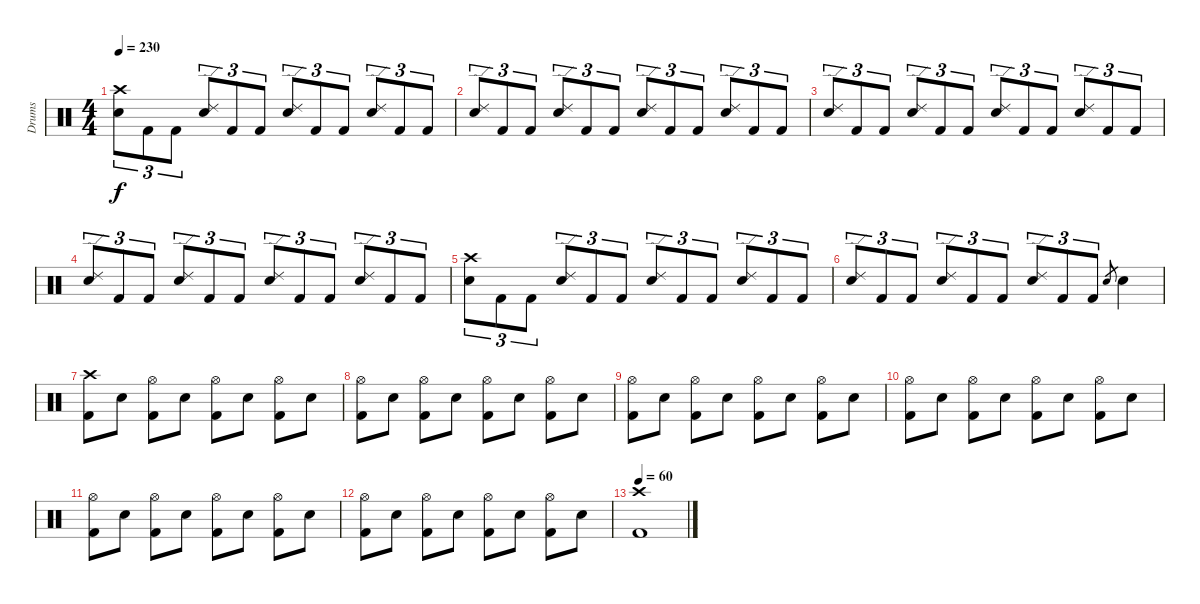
\track ("Drums" "Drums") {instrument percussion}
\staff {score}
\articulation defaults
\ts (4 4)
\tempo 230
\clef neutral
\ks c
("Crash high (hit)" "Electric Snare (hit)").8{tu (3 2) dy f} "Kick (hit) 2".8{tu (3 2)} "Kick (hit) 2".8{tu (3 2)} ("Ride (edge) 2" "Electric Snare (hit)").8{tu (3 2)} "Kick (hit) 2".8{tu (3 2)} "Kick (hit) 2".8{tu (3 2)} ("Ride (edge) 2" "Electric Snare (hit)").8{tu (3 2)} "Kick (hit) 2".8{tu (3 2)} "Kick (hit) 2".8{tu (3 2)} ("Ride (edge) 2" "Electric Snare (hit)").8{tu (3 2)} "Kick (hit) 2".8{tu (3 2)} "Kick (hit) 2".8{tu (3 2)} |
("Ride (edge) 2" "Electric Snare (hit)").8{tu (3 2)} "Kick (hit) 2".8{tu (3 2)} "Kick (hit) 2".8{tu (3 2)} ("Ride (edge) 2" "Electric Snare (hit)").8{tu (3 2)} "Kick (hit) 2".8{tu (3 2)} "Kick (hit) 2".8{tu (3 2)} ("Ride (edge) 2" "Electric Snare (hit)").8{tu (3 2)} "Kick (hit) 2".8{tu (3 2)} "Kick (hit) 2".8{tu (3 2)} ("Ride (edge) 2" "Electric Snare (hit)").8{tu (3 2)} "Kick (hit) 2".8{tu (3 2)} "Kick (hit) 2".8{tu (3 2)} |
("Ride (edge) 2" "Electric Snare (hit)").8{tu (3 2)} "Kick (hit) 2".8{tu (3 2)} "Kick (hit) 2".8{tu (3 2)} ("Ride (edge) 2" "Electric Snare (hit)").8{tu (3 2)} "Kick (hit) 2".8{tu (3 2)} "Kick (hit) 2".8{tu (3 2)} ("Ride (edge) 2" "Electric Snare (hit)").8{tu (3 2)} "Kick (hit) 2".8{tu (3 2)} "Kick (hit) 2".8{tu (3 2)} ("Ride (edge) 2" "Electric Snare (hit)").8{tu (3 2)} "Kick (hit) 2".8{tu (3 2)} "Kick (hit) 2".8{tu (3 2)} |
("Ride (edge) 2" "Electric Snare (hit)").8{tu (3 2)} "Kick (hit) 2".8{tu (3 2)} "Kick (hit) 2".8{tu (3 2)} ("Ride (edge) 2" "Electric Snare (hit)").8{tu (3 2)} "Kick (hit) 2".8{tu (3 2)} "Kick (hit) 2".8{tu (3 2)} ("Ride (edge) 2" "Electric Snare (hit)").8{tu (3 2)} "Kick (hit) 2".8{tu (3 2)} "Kick (hit) 2".8{tu (3 2)} ("Ride (edge) 2" "Electric Snare (hit)").8{tu (3 2)} "Kick (hit) 2".8{tu (3 2)} "Kick (hit) 2".8{tu (3 2)} |
("Crash high (hit)" "Electric Snare (hit)").8{tu (3 2)} "Kick (hit) 2".8{tu (3 2)} "Kick (hit) 2".8{tu (3 2)} ("Ride (edge) 2" "Electric Snare (hit)").8{tu (3 2)} "Kick (hit) 2".8{tu (3 2)} "Kick (hit) 2".8{tu (3 2)} ("Ride (edge) 2" "Electric Snare (hit)").8{tu (3 2)} "Kick (hit) 2".8{tu (3 2)} "Kick (hit) 2".8{tu (3 2)} ("Ride (edge) 2" "Electric Snare (hit)").8{tu (3 2)} "Kick (hit) 2".8{tu (3 2)} "Kick (hit) 2".8{tu (3 2)} |
("Ride (edge) 2" "Electric Snare (hit)").8{tu (3 2)} "Kick (hit) 2".8{tu (3 2)} "Kick (hit) 2".8{tu (3 2)} ("Ride (edge) 2" "Electric Snare (hit)").8{tu (3 2)} "Kick (hit) 2".8{tu (3 2)} "Kick (hit) 2".8{tu (3 2)} ("Ride (edge) 2" "Electric Snare (hit)").8{tu (3 2)} "Kick (hit) 2".8{tu (3 2)} "Kick (hit) 2".8{tu (3 2)} "Electric Snare (hit)".8{gr} "Electric Snare (hit)".4 |
("Crash high (hit)" "Kick (hit) 2").8 "Electric Snare (hit)".8 ("Hi-Hat (open)" "Kick (hit) 2").8 "Electric Snare (hit)".8 ("Hi-Hat (open)" "Kick (hit) 2").8 "Electric Snare (hit)".8 ("Hi-Hat (open)" "Kick (hit) 2").8 "Electric Snare (hit)".8 |
("Hi-Hat (open)" "Kick (hit) 2").8 "Electric Snare (hit)".8 ("Hi-Hat (open)" "Kick (hit) 2").8 "Electric Snare (hit)".8 ("Hi-Hat (open)" "Kick (hit) 2").8 "Electric Snare (hit)".8 ("Hi-Hat (open)" "Kick (hit) 2").8 "Electric Snare (hit)".8 |
("Hi-Hat (open)" "Kick (hit) 2").8 "Electric Snare (hit)".8 ("Hi-Hat (open)" "Kick (hit) 2").8 "Electric Snare (hit)".8 ("Hi-Hat (open)" "Kick (hit) 2").8 "Electric Snare (hit)".8 ("Hi-Hat (open)" "Kick (hit) 2").8 "Electric Snare (hit)".8 |
("Hi-Hat (open)" "Kick (hit) 2").8 "Electric Snare (hit)".8 ("Hi-Hat (open)" "Kick (hit) 2").8 "Electric Snare (hit)".8 ("Hi-Hat (open)" "Kick (hit) 2").8 "Electric Snare (hit)".8 ("Hi-Hat (open)" "Kick (hit) 2").8 "Electric Snare (hit)".8 |
("Hi-Hat (open)" "Kick (hit) 2").8 "Electric Snare (hit)".8 ("Hi-Hat (open)" "Kick (hit) 2").8 "Electric Snare (hit)".8 ("Hi-Hat (open)" "Kick (hit) 2").8 "Electric Snare (hit)".8 ("Hi-Hat (open)" "Kick (hit) 2").8 "Electric Snare (hit)".8 |
("Hi-Hat (open)" "Kick (hit) 2").8 "Electric Snare (hit)".8 ("Hi-Hat (open)" "Kick (hit) 2").8 "Electric Snare (hit)".8 ("Hi-Hat (open)" "Kick (hit) 2").8 "Electric Snare (hit)".8 ("Hi-Hat (open)" "Kick (hit) 2").8 "Electric Snare (hit)".8 |
\tempo 60
("Crash high (hit)" "Kick (hit) 2").1
